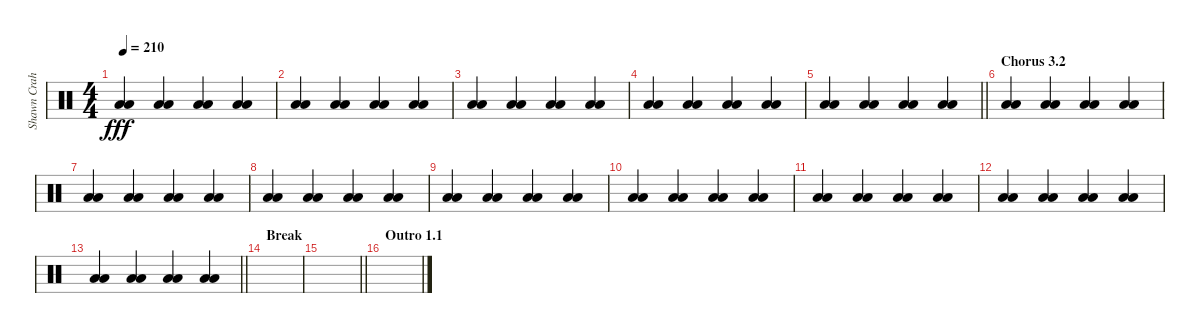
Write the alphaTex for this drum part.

\track ("Shawn Crahan" "Shawn Crah") {instrument percussion}
\staff {score}
\articulation defaults
\ts (4 4)
\tempo 210
\clef neutral
\ks c
("Low Floor Tom (hit)" "Low Floor Tom (hit)").4{dy fff} ("Low Floor Tom (hit)" "Low Floor Tom (hit)").4 ("Low Floor Tom (hit)" "Low Floor Tom (hit)").4 ("Low Floor Tom (hit)" "Low Floor Tom (hit)").4 |
("Low Floor Tom (hit)" "Low Floor Tom (hit)").4 ("Low Floor Tom (hit)" "Low Floor Tom (hit)").4 ("Low Floor Tom (hit)" "Low Floor Tom (hit)").4 ("Low Floor Tom (hit)" "Low Floor Tom (hit)").4 |
("Low Floor Tom (hit)" "Low Floor Tom (hit)").4 ("Low Floor Tom (hit)" "Low Floor Tom (hit)").4 ("Low Floor Tom (hit)" "Low Floor Tom (hit)").4 ("Low Floor Tom (hit)" "Low Floor Tom (hit)").4 |
("Low Floor Tom (hit)" "Low Floor Tom (hit)").4 ("Low Floor Tom (hit)" "Low Floor Tom (hit)").4 ("Low Floor Tom (hit)" "Low Floor Tom (hit)").4 ("Low Floor Tom (hit)" "Low Floor Tom (hit)").4 |
\barLineRight lightlight
("Low Floor Tom (hit)" "Low Floor Tom (hit)").4 ("Low Floor Tom (hit)" "Low Floor Tom (hit)").4 ("Low Floor Tom (hit)" "Low Floor Tom (hit)").4 ("Low Floor Tom (hit)" "Low Floor Tom (hit)").4 |
\section ("" "Chorus 3.2")
("Low Floor Tom (hit)" "Low Floor Tom (hit)").4 ("Low Floor Tom (hit)" "Low Floor Tom (hit)").4 ("Low Floor Tom (hit)" "Low Floor Tom (hit)").4 ("Low Floor Tom (hit)" "Low Floor Tom (hit)").4 |
("Low Floor Tom (hit)" "Low Floor Tom (hit)").4 ("Low Floor Tom (hit)" "Low Floor Tom (hit)").4 ("Low Floor Tom (hit)" "Low Floor Tom (hit)").4 ("Low Floor Tom (hit)" "Low Floor Tom (hit)").4 |
("Low Floor Tom (hit)" "Low Floor Tom (hit)").4 ("Low Floor Tom (hit)" "Low Floor Tom (hit)").4 ("Low Floor Tom (hit)" "Low Floor Tom (hit)").4 ("Low Floor Tom (hit)" "Low Floor Tom (hit)").4 |
("Low Floor Tom (hit)" "Low Floor Tom (hit)").4 ("Low Floor Tom (hit)" "Low Floor Tom (hit)").4 ("Low Floor Tom (hit)" "Low Floor Tom (hit)").4 ("Low Floor Tom (hit)" "Low Floor Tom (hit)").4 |
("Low Floor Tom (hit)" "Low Floor Tom (hit)").4 ("Low Floor Tom (hit)" "Low Floor Tom (hit)").4 ("Low Floor Tom (hit)" "Low Floor Tom (hit)").4 ("Low Floor Tom (hit)" "Low Floor Tom (hit)").4 |
("Low Floor Tom (hit)" "Low Floor Tom (hit)").4 ("Low Floor Tom (hit)" "Low Floor Tom (hit)").4 ("Low Floor Tom (hit)" "Low Floor Tom (hit)").4 ("Low Floor Tom (hit)" "Low Floor Tom (hit)").4 |
("Low Floor Tom (hit)" "Low Floor Tom (hit)").4 ("Low Floor Tom (hit)" "Low Floor Tom (hit)").4 ("Low Floor Tom (hit)" "Low Floor Tom (hit)").4 ("Low Floor Tom (hit)" "Low Floor Tom (hit)").4 |
\barLineRight lightlight
("Low Floor Tom (hit)" "Low Floor Tom (hit)").4 ("Low Floor Tom (hit)" "Low Floor Tom (hit)").4 ("Low Floor Tom (hit)" "Low Floor Tom (hit)").4 ("Low Floor Tom (hit)" "Low Floor Tom (hit)").4 |
\section ("" "Break")
|
\barLineRight lightlight
|
\section ("" "Outro 1.1")
